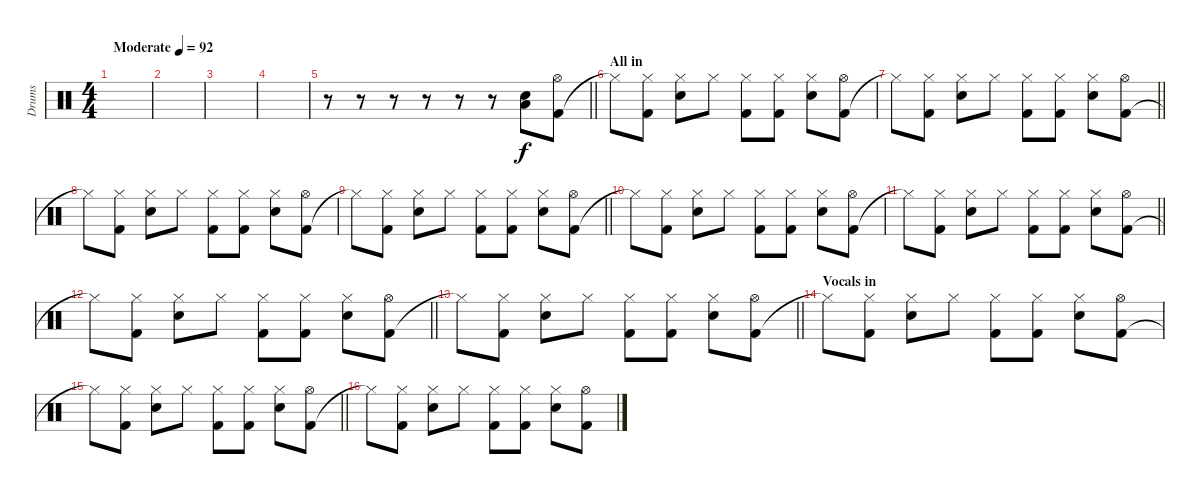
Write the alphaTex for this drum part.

\track ("Drums" "Drums") {instrument percussion}
\staff {score}
\articulation defaults
\ts (4 4)
\tempo (92 "Moderate")
\clef neutral
\ks c
|
|
|
|
\barLineRight lightlight
r.8 r.8 r.8 r.8 r.8 r.8 ("Electric Snare (hit)" "Low Floor Tom (hit)").8 ("Kick (hit) 2" "Hi-Hat (open)").8 |
\section ("" "All in")
"Hi-Hat (closed)"{t}.8 ("Kick (hit) 2" "Hi-Hat (closed)").8 ("Electric Snare (hit)" "Hi-Hat (closed)").8 "Hi-Hat (closed)".8 ("Kick (hit) 2" "Hi-Hat (closed)").8 ("Kick (hit) 2" "Hi-Hat (closed)").8 ("Electric Snare (hit)" "Hi-Hat (closed)").8 ("Kick (hit) 2" "Hi-Hat (open)").8 |
\barLineRight lightlight "Hi-Hat (closed)"{t}.8
("Kick (hit) 2" "Hi-Hat (closed)").8 ("Electric Snare (hit)" "Hi-Hat (closed)").8 "Hi-Hat (closed)".8 ("Kick (hit) 2" "Hi-Hat (closed)").8 ("Kick (hit) 2" "Hi-Hat (closed)").8 ("Electric Snare (hit)" "Hi-Hat (closed)").8 ("Kick (hit) 2" "Hi-Hat (open)").8 |
"Hi-Hat (closed)"{t}.8 ("Kick (hit) 2" "Hi-Hat (closed)").8 ("Electric Snare (hit)" "Hi-Hat (closed)").8 "Hi-Hat (closed)".8 ("Kick (hit) 2" "Hi-Hat (closed)").8 ("Kick (hit) 2" "Hi-Hat (closed)").8 ("Electric Snare (hit)" "Hi-Hat (closed)").8 ("Kick (hit) 2" "Hi-Hat (open)").8 |
\barLineRight lightlight "Hi-Hat (closed)"{t}.8
("Kick (hit) 2" "Hi-Hat (closed)").8 ("Electric Snare (hit)" "Hi-Hat (closed)").8 "Hi-Hat (closed)".8 ("Kick (hit) 2" "Hi-Hat (closed)").8 ("Kick (hit) 2" "Hi-Hat (closed)").8 ("Electric Snare (hit)" "Hi-Hat (closed)").8 ("Kick (hit) 2" "Hi-Hat (open)").8 |
"Hi-Hat (closed)"{t}.8 ("Kick (hit) 2" "Hi-Hat (closed)").8 ("Electric Snare (hit)" "Hi-Hat (closed)").8 "Hi-Hat (closed)".8 ("Kick (hit) 2" "Hi-Hat (closed)").8 ("Kick (hit) 2" "Hi-Hat (closed)").8 ("Electric Snare (hit)" "Hi-Hat (closed)").8 ("Kick (hit) 2" "Hi-Hat (open)").8 |
\barLineRight lightlight "Hi-Hat (closed)"{t}.8
("Kick (hit) 2" "Hi-Hat (closed)").8 ("Electric Snare (hit)" "Hi-Hat (closed)").8 "Hi-Hat (closed)".8 ("Kick (hit) 2" "Hi-Hat (closed)").8 ("Kick (hit) 2" "Hi-Hat (closed)").8 ("Electric Snare (hit)" "Hi-Hat (closed)").8 ("Kick (hit) 2" "Hi-Hat (open)").8 |
\barLineRight lightlight "Hi-Hat (closed)"{t}.8
("Kick (hit) 2" "Hi-Hat (closed)").8 ("Electric Snare (hit)" "Hi-Hat (closed)").8 "Hi-Hat (closed)".8 ("Kick (hit) 2" "Hi-Hat (closed)").8 ("Kick (hit) 2" "Hi-Hat (closed)").8 ("Electric Snare (hit)" "Hi-Hat (closed)").8 ("Kick (hit) 2" "Hi-Hat (open)").8 |
\barLineRight lightlight "Hi-Hat (closed)"{t}.8
("Kick (hit) 2" "Hi-Hat (closed)").8 ("Electric Snare (hit)" "Hi-Hat (closed)").8 "Hi-Hat (closed)".8 ("Kick (hit) 2" "Hi-Hat (closed)").8 ("Kick (hit) 2" "Hi-Hat (closed)").8 ("Electric Snare (hit)" "Hi-Hat (closed)").8 ("Kick (hit) 2" "Hi-Hat (open)").8 |
\section ("" "Vocals in")
"Hi-Hat (closed)"{t}.8 ("Kick (hit) 2" "Hi-Hat (closed)").8 ("Electric Snare (hit)" "Hi-Hat (closed)").8 "Hi-Hat (closed)".8 ("Kick (hit) 2" "Hi-Hat (closed)").8 ("Kick (hit) 2" "Hi-Hat (closed)").8 ("Electric Snare (hit)" "Hi-Hat (closed)").8 ("Kick (hit) 2" "Hi-Hat (open)").8 |
\barLineRight lightlight "Hi-Hat (closed)"{t}.8
("Kick (hit) 2" "Hi-Hat (closed)").8 ("Electric Snare (hit)" "Hi-Hat (closed)").8 "Hi-Hat (closed)".8 ("Kick (hit) 2" "Hi-Hat (closed)").8 ("Kick (hit) 2" "Hi-Hat (closed)").8 ("Electric Snare (hit)" "Hi-Hat (closed)").8 ("Kick (hit) 2" "Hi-Hat (open)").8 |
"Hi-Hat (closed)"{t}.8 ("Kick (hit) 2" "Hi-Hat (closed)").8 ("Electric Snare (hit)" "Hi-Hat (closed)").8 "Hi-Hat (closed)".8 ("Kick (hit) 2" "Hi-Hat (closed)").8 ("Kick (hit) 2" "Hi-Hat (closed)").8 ("Electric Snare (hit)" "Hi-Hat (closed)").8 ("Kick (hit) 2" "Hi-Hat (open)").8
